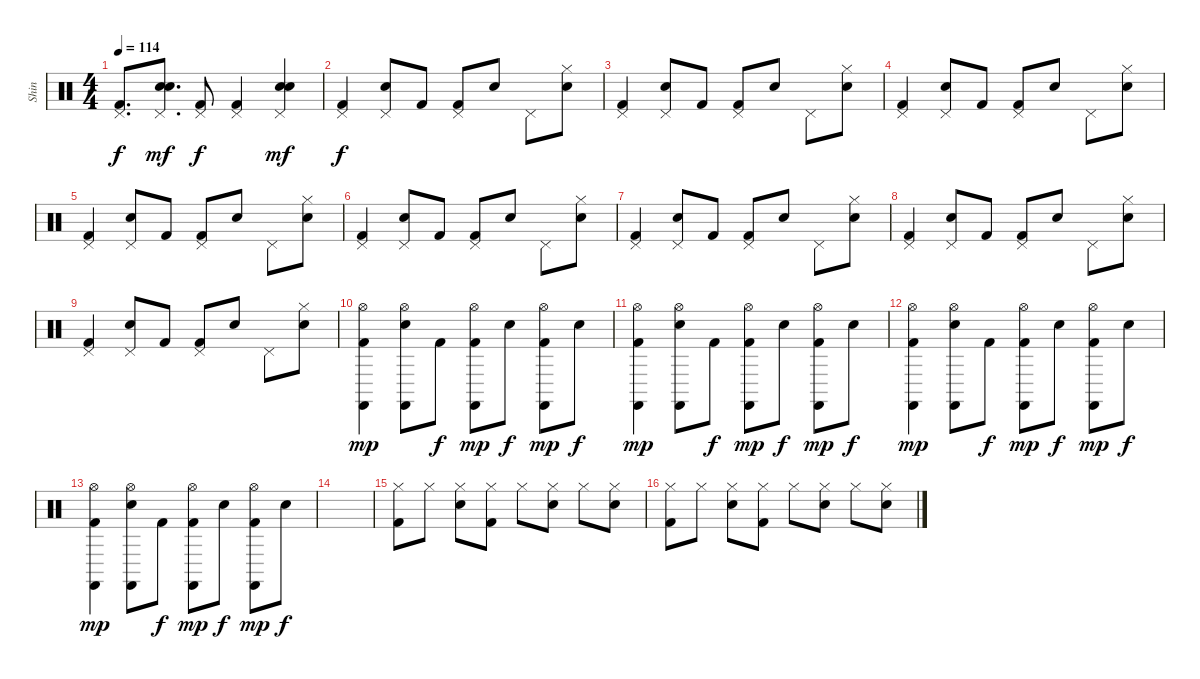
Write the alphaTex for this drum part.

\track ("Shin" "Shin") {instrument percussion}
\staff {score}
\articulation defaults
\ts (4 4)
\tempo 114
\clef neutral
\ks c
("Pedal Hi-Hat (hit)" "Kick (hit) 2").8{d dy f} ("Pedal Hi-Hat (hit)" "Hand Clap (hit)" "Electric Snare (hit)").8{d dy mf} ("Pedal Hi-Hat (hit)" "Kick (hit) 2").8{dy f} ("Pedal Hi-Hat (hit)" "Kick (hit) 2").4 ("Pedal Hi-Hat (hit)" "Hand Clap (hit)" "Electric Snare (hit)").4{dy mf} |
("Pedal Hi-Hat (hit)" "Kick (hit) 2").4{dy f} ("Pedal Hi-Hat (hit)" "Electric Snare (hit)").8 "Kick (hit) 2".8 ("Pedal Hi-Hat (hit)" "Kick (hit) 2").8 "Electric Snare (hit)".8 "Pedal Hi-Hat (hit)".8 ("Hi-Hat (closed)" "Electric Snare (hit)").8 |
("Pedal Hi-Hat (hit)" "Kick (hit) 2").4 ("Pedal Hi-Hat (hit)" "Electric Snare (hit)").8 "Kick (hit) 2".8 ("Pedal Hi-Hat (hit)" "Kick (hit) 2").8 "Electric Snare (hit)".8 "Pedal Hi-Hat (hit)".8 ("Hi-Hat (closed)" "Electric Snare (hit)").8 |
("Pedal Hi-Hat (hit)" "Kick (hit) 2").4 ("Pedal Hi-Hat (hit)" "Electric Snare (hit)").8 "Kick (hit) 2".8 ("Pedal Hi-Hat (hit)" "Kick (hit) 2").8 "Electric Snare (hit)".8 "Pedal Hi-Hat (hit)".8 ("Hi-Hat (closed)" "Electric Snare (hit)").8 |
("Pedal Hi-Hat (hit)" "Kick (hit) 2").4 ("Pedal Hi-Hat (hit)" "Electric Snare (hit)").8 "Kick (hit) 2".8 ("Pedal Hi-Hat (hit)" "Kick (hit) 2").8 "Electric Snare (hit)".8 "Pedal Hi-Hat (hit)".8 ("Hi-Hat (closed)" "Electric Snare (hit)").8 |
("Pedal Hi-Hat (hit)" "Kick (hit) 2").4 ("Pedal Hi-Hat (hit)" "Electric Snare (hit)").8 "Kick (hit) 2".8 ("Pedal Hi-Hat (hit)" "Kick (hit) 2").8 "Electric Snare (hit)".8 "Pedal Hi-Hat (hit)".8 ("Hi-Hat (closed)" "Electric Snare (hit)").8 |
("Pedal Hi-Hat (hit)" "Kick (hit) 2").4 ("Pedal Hi-Hat (hit)" "Electric Snare (hit)").8 "Kick (hit) 2".8 ("Pedal Hi-Hat (hit)" "Kick (hit) 2").8 "Electric Snare (hit)".8 "Pedal Hi-Hat (hit)".8 ("Hi-Hat (closed)" "Electric Snare (hit)").8 |
("Pedal Hi-Hat (hit)" "Kick (hit) 2").4 ("Pedal Hi-Hat (hit)" "Electric Snare (hit)").8 "Kick (hit) 2".8 ("Pedal Hi-Hat (hit)" "Kick (hit) 2").8 "Electric Snare (hit)".8 "Pedal Hi-Hat (hit)".8 ("Hi-Hat (closed)" "Electric Snare (hit)").8 |
("Pedal Hi-Hat (hit)" "Kick (hit) 2").4 ("Pedal Hi-Hat (hit)" "Electric Snare (hit)").8 "Kick (hit) 2".8 ("Pedal Hi-Hat (hit)" "Kick (hit) 2").8 "Electric Snare (hit)".8 "Pedal Hi-Hat (hit)".8 ("Hi-Hat (closed)" "Electric Snare (hit)").8 |
("Castanets (hit)" "Hi-Hat (open)" "Kick (hit) 2").4{dy mp} ("Castanets (hit)" "Hi-Hat (open)" "Electric Snare (hit)").8 "Kick (hit) 2".8{dy f} ("Castanets (hit)" "Hi-Hat (open)" "Kick (hit) 2").8{dy mp} "Electric Snare (hit)".8{dy f} ("Castanets (hit)" "Hi-Hat (open)" "Kick (hit) 2").8{dy mp} "Electric Snare (hit)".8{dy f} |
("Castanets (hit)" "Hi-Hat (open)" "Kick (hit) 2").4{dy mp} ("Castanets (hit)" "Hi-Hat (open)" "Electric Snare (hit)").8 "Kick (hit) 2".8{dy f} ("Castanets (hit)" "Hi-Hat (open)" "Kick (hit) 2").8{dy mp} "Electric Snare (hit)".8{dy f} ("Castanets (hit)" "Hi-Hat (open)" "Kick (hit) 2").8{dy mp} "Electric Snare (hit)".8{dy f} |
("Castanets (hit)" "Hi-Hat (open)" "Kick (hit) 2").4{dy mp} ("Castanets (hit)" "Hi-Hat (open)" "Electric Snare (hit)").8 "Kick (hit) 2".8{dy f} ("Castanets (hit)" "Hi-Hat (open)" "Kick (hit) 2").8{dy mp} "Electric Snare (hit)".8{dy f} ("Castanets (hit)" "Hi-Hat (open)" "Kick (hit) 2").8{dy mp} "Electric Snare (hit)".8{dy f} |
("Castanets (hit)" "Hi-Hat (open)" "Kick (hit) 2").4{dy mp} ("Castanets (hit)" "Hi-Hat (open)" "Electric Snare (hit)").8 "Kick (hit) 2".8{dy f} ("Castanets (hit)" "Hi-Hat (open)" "Kick (hit) 2").8{dy mp} "Electric Snare (hit)".8{dy f} ("Castanets (hit)" "Hi-Hat (open)" "Kick (hit) 2").8{dy mp} "Electric Snare (hit)".8{dy f} |
|
("Hi-Hat (closed)" "Kick (hit) 2").8 "Hi-Hat (closed)".8 ("Hi-Hat (closed)" "Electric Snare (hit)").8 ("Hi-Hat (closed)" "Kick (hit) 2").8 "Hi-Hat (closed)".8 ("Hi-Hat (closed)" "Electric Snare (hit)").8 "Hi-Hat (closed)".8 ("Hi-Hat (closed)" "Electric Snare (hit)").8 |
("Hi-Hat (closed)" "Kick (hit) 2").8 "Hi-Hat (closed)".8 ("Hi-Hat (closed)" "Electric Snare (hit)").8 ("Hi-Hat (closed)" "Kick (hit) 2").8 "Hi-Hat (closed)".8 ("Hi-Hat (closed)" "Electric Snare (hit)").8 "Hi-Hat (closed)".8 ("Hi-Hat (closed)" "Electric Snare (hit)").8
